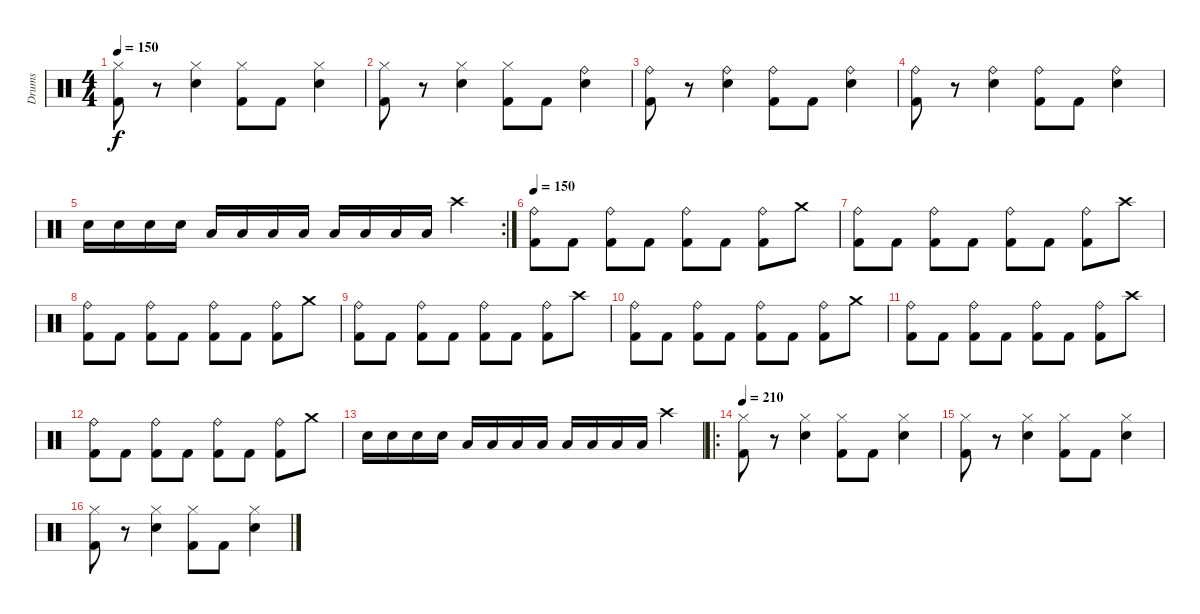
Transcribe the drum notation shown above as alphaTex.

\track ("Drums" "Drums") {instrument percussion}
\staff {score}
\articulation defaults
\ts (4 4)
\tempo 150
\clef neutral
\ks c
("Kick (hit) 2" "Hi-Hat (closed)").8{dy f} r.8 ("Snare (hit) 2" "Hi-Hat (closed)").4 ("Kick (hit) 2" "Hi-Hat (closed)").8 "Kick (hit) 2".8 ("Snare (hit) 2" "Hi-Hat (closed)").4 |
("Kick (hit) 2" "Hi-Hat (closed)").8 r.8 ("Snare (hit) 2" "Hi-Hat (closed)").4 ("Kick (hit) 2" "Hi-Hat (closed)").8 "Kick (hit) 2".8 ("Snare (hit) 2" "Ride (bell)").4 |
("Kick (hit) 2" "Ride (bell)").8 r.8 ("Snare (hit) 2" "Ride (bell)").4 ("Kick (hit) 2" "Ride (bell)").8 "Kick (hit) 2".8 ("Snare (hit) 2" "Ride (bell)").4 |
("Kick (hit) 2" "Ride (bell)").8 r.8 ("Snare (hit) 2" "Ride (bell)").4 ("Kick (hit) 2" "Ride (bell)").8 "Kick (hit) 2".8 ("Snare (hit) 2" "Ride (bell)").4 |
\rc 2 "Snare (hit) 2".16 "Snare (hit) 2".16 "Snare (hit) 2".16 "Snare (hit) 2".16 "Low Tom (hit)".16 "Low Tom (hit)".16 "Low Tom (hit)".16 "Low Tom (hit)".16 "Low Floor Tom (hit)".16 "Low Floor Tom (hit)".16 "Low Floor Tom (hit)".16 "Low Floor Tom (hit)".16 "Crash high (hit)".4
|
\tempo 150
("Kick (hit) 2" "Ride (bell)").8 "Kick (hit) 2".8 ("Kick (hit) 2" "Ride (bell)").8 "Kick (hit) 2".8 ("Kick (hit) 2" "Ride (bell)").8 "Kick (hit) 2".8 ("Kick (hit) 2" "Ride (bell)").8 "Crash medium (hit)".8 |
("Kick (hit) 2" "Ride (bell)").8 "Kick (hit) 2".8 ("Kick (hit) 2" "Ride (bell)").8 "Kick (hit) 2".8 ("Kick (hit) 2" "Ride (bell)").8 "Kick (hit) 2".8 ("Kick (hit) 2" "Ride (bell)").8 "Crash high (hit)".8 |
("Kick (hit) 2" "Ride (bell)").8 "Kick (hit) 2".8 ("Kick (hit) 2" "Ride (bell)").8 "Kick (hit) 2".8 ("Kick (hit) 2" "Ride (bell)").8 "Kick (hit) 2".8 ("Kick (hit) 2" "Ride (bell)").8 "Crash medium (hit)".8 |
("Kick (hit) 2" "Ride (bell)").8 "Kick (hit) 2".8 ("Kick (hit) 2" "Ride (bell)").8 "Kick (hit) 2".8 ("Kick (hit) 2" "Ride (bell)").8 "Kick (hit) 2".8 ("Kick (hit) 2" "Ride (bell)").8 "Crash high (hit)".8 |
("Kick (hit) 2" "Ride (bell)").8 "Kick (hit) 2".8 ("Kick (hit) 2" "Ride (bell)").8 "Kick (hit) 2".8 ("Kick (hit) 2" "Ride (bell)").8 "Kick (hit) 2".8 ("Kick (hit) 2" "Ride (bell)").8 "Crash medium (hit)".8 |
("Kick (hit) 2" "Ride (bell)").8 "Kick (hit) 2".8 ("Kick (hit) 2" "Ride (bell)").8 "Kick (hit) 2".8 ("Kick (hit) 2" "Ride (bell)").8 "Kick (hit) 2".8 ("Kick (hit) 2" "Ride (bell)").8 "Crash high (hit)".8 |
("Kick (hit) 2" "Ride (bell)").8 "Kick (hit) 2".8 ("Kick (hit) 2" "Ride (bell)").8 "Kick (hit) 2".8 ("Kick (hit) 2" "Ride (bell)").8 "Kick (hit) 2".8 ("Kick (hit) 2" "Ride (bell)").8 "Crash medium (hit)".8 |
"Snare (hit) 2".16 "Snare (hit) 2".16 "Snare (hit) 2".16 "Snare (hit) 2".16 "Low Tom (hit)".16 "Low Tom (hit)".16 "Low Tom (hit)".16 "Low Tom (hit)".16 "Low Floor Tom (hit)".16 "Low Floor Tom (hit)".16 "Low Floor Tom (hit)".16 "Low Floor Tom (hit)".16 "Crash high (hit)".4 |
\ro
\tempo 210
("Kick (hit) 2" "Hi-Hat (closed)").8 r.8 ("Snare (hit) 2" "Hi-Hat (closed)").4 ("Kick (hit) 2" "Hi-Hat (closed)").8 "Kick (hit) 2".8 ("Snare (hit) 2" "Hi-Hat (closed)").4 |
("Kick (hit) 2" "Hi-Hat (closed)").8 r.8 ("Snare (hit) 2" "Hi-Hat (closed)").4 ("Kick (hit) 2" "Hi-Hat (closed)").8 "Kick (hit) 2".8 ("Snare (hit) 2" "Hi-Hat (closed)").4 |
("Kick (hit) 2" "Hi-Hat (closed)").8 r.8 ("Snare (hit) 2" "Hi-Hat (closed)").4 ("Kick (hit) 2" "Hi-Hat (closed)").8 "Kick (hit) 2".8 ("Snare (hit) 2" "Hi-Hat (closed)").4
